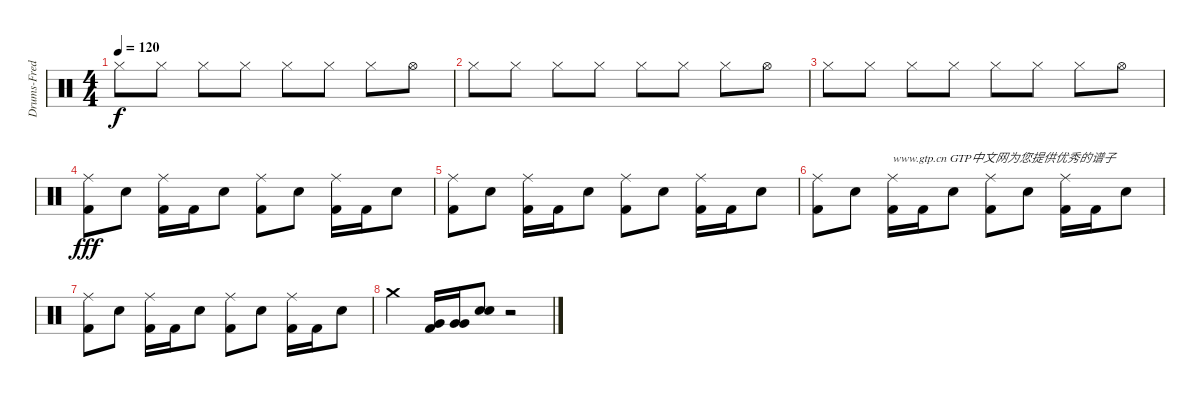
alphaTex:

\track ("Drums-Fred" "Drums-Fred") {instrument percussion}
\staff {score}
\articulation defaults
\ts (4 4)
\tempo 120
\clef neutral
\ks c "Hi-Hat (closed)".8{dy f} "Hi-Hat (closed)".8 "Hi-Hat (closed)".8 "Hi-Hat (closed)".8 "Hi-Hat (closed)".8 "Hi-Hat (closed)".8 "Hi-Hat (closed)".8 "Hi-Hat (open)".8
|
"Hi-Hat (closed)".8 "Hi-Hat (closed)".8 "Hi-Hat (closed)".8 "Hi-Hat (closed)".8 "Hi-Hat (closed)".8 "Hi-Hat (closed)".8 "Hi-Hat (closed)".8 "Hi-Hat (open)".8 |
"Hi-Hat (closed)".8 "Hi-Hat (closed)".8 "Hi-Hat (closed)".8 "Hi-Hat (closed)".8 "Hi-Hat (closed)".8 "Hi-Hat (closed)".8 "Hi-Hat (closed)".8 "Hi-Hat (open)".8 |
("Kick (hit) 2" "Ride (middle)").8{dy fff} "Snare (hit) 2".8 ("Kick (hit) 2" "Ride (middle)").16 "Kick (hit) 2".16 "Snare (hit) 2".8 ("Kick (hit) 2" "Ride (middle)").8 "Snare (hit) 2".8 ("Kick (hit) 2" "Ride (middle)").16 "Kick (hit) 2".16 "Snare (hit) 2".8 |
("Kick (hit) 2" "Ride (middle)").8 "Snare (hit) 2".8 ("Kick (hit) 2" "Ride (middle)").16 "Kick (hit) 2".16 "Snare (hit) 2".8 ("Kick (hit) 2" "Ride (middle)").8 "Snare (hit) 2".8 ("Kick (hit) 2" "Ride (middle)").16 "Kick (hit) 2".16 "Snare (hit) 2".8 |
("Kick (hit) 2" "Ride (middle)").8 "Snare (hit) 2".8 ("Kick (hit) 2" "Ride (middle)").16{txt "www.gtp.cn GTP中文网为您提供优秀的谱子"} "Kick (hit) 2".16 "Snare (hit) 2".8 ("Kick (hit) 2" "Ride (middle)").8 "Snare (hit) 2".8 ("Kick (hit) 2" "Ride (middle)").16 "Kick (hit) 2".16 "Snare (hit) 2".8 |
("Kick (hit) 2" "Ride (middle)").8 "Snare (hit) 2".8 ("Kick (hit) 2" "Ride (middle)").16 "Kick (hit) 2".16 "Snare (hit) 2".8 ("Kick (hit) 2" "Ride (middle)").8 "Snare (hit) 2".8 ("Kick (hit) 2" "Ride (middle)").16 "Kick (hit) 2".16 "Snare (hit) 2".8 |
"Crash medium (hit)".4 ("Kick (hit) 2" "Very Low Tom (hit)").16 ("Very Low Tom (hit)" "Very Low Tom (hit)").16 ("Snare (hit) 2" "Snare (hit) 2").8 r.2
